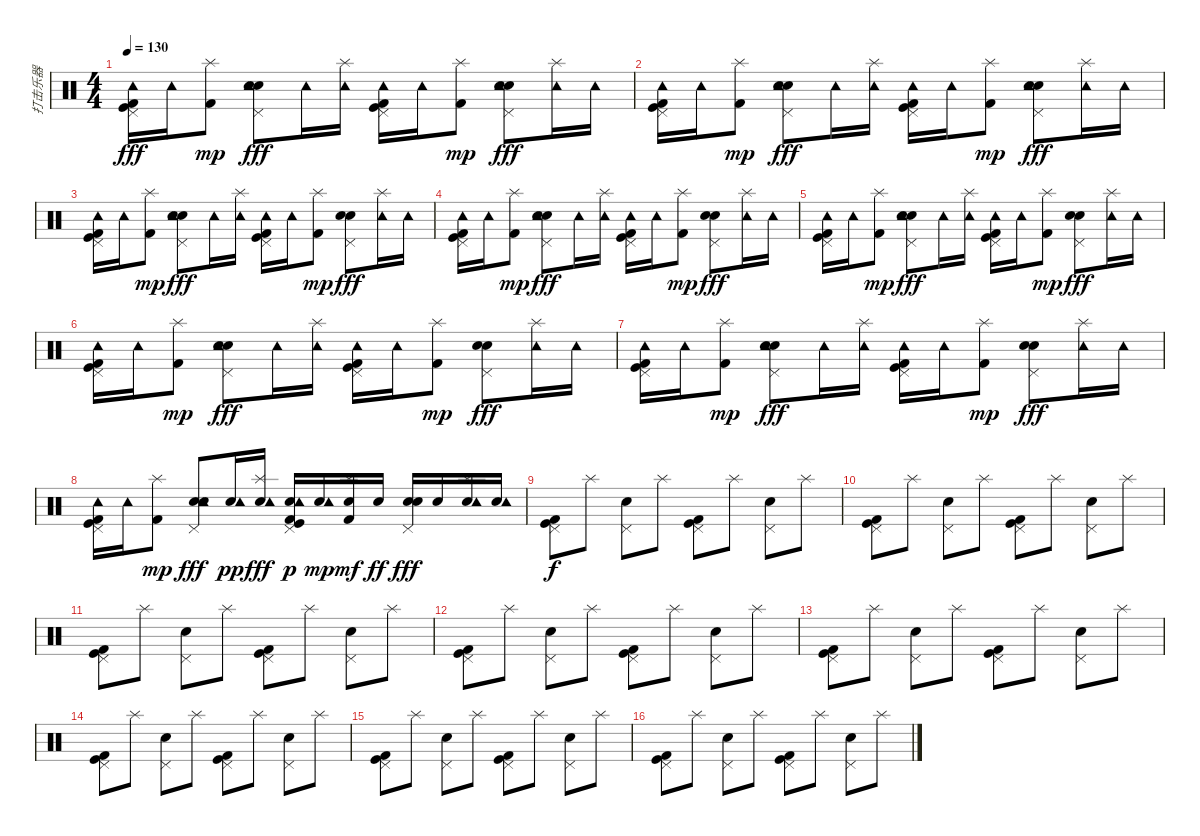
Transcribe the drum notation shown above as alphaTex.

\track ("打击乐器" "打击乐器") {instrument percussion}
\staff {score}
\articulation defaults
\ts (4 4)
\tempo 130
\clef neutral
\ks c
("Pedal Hi-Hat (hit)" "Kick (hit)" "Kick (hit) 2" "Tambourine (hit)").16{dy fff} "Tambourine (hit)".16 ("Splash (hit)" "Kick (hit) 2").8{dy mp} ("Pedal Hi-Hat (hit)" "Electric Snare (hit)" "Snare (hit) 2" "Tambourine (hit)").8{dy fff} "Tambourine (hit)".16 ("Splash (hit)" "Tambourine (hit)").16 ("Pedal Hi-Hat (hit)" "Kick (hit)" "Kick (hit) 2" "Tambourine (hit)").16 "Tambourine (hit)".16 ("Splash (hit)" "Kick (hit) 2").8{dy mp} ("Pedal Hi-Hat (hit)" "Electric Snare (hit)" "Snare (hit) 2" "Tambourine (hit)").8{dy fff} ("Splash (hit)" "Tambourine (hit)").16 "Tambourine (hit)".16 |
("Pedal Hi-Hat (hit)" "Kick (hit)" "Kick (hit) 2" "Tambourine (hit)").16 "Tambourine (hit)".16 ("Splash (hit)" "Kick (hit) 2").8{dy mp} ("Pedal Hi-Hat (hit)" "Electric Snare (hit)" "Snare (hit) 2" "Tambourine (hit)").8{dy fff} "Tambourine (hit)".16 ("Splash (hit)" "Tambourine (hit)").16 ("Pedal Hi-Hat (hit)" "Kick (hit)" "Kick (hit) 2" "Tambourine (hit)").16 "Tambourine (hit)".16 ("Splash (hit)" "Kick (hit) 2").8{dy mp} ("Pedal Hi-Hat (hit)" "Electric Snare (hit)" "Snare (hit) 2" "Tambourine (hit)").8{dy fff} ("Splash (hit)" "Tambourine (hit)").16 "Tambourine (hit)".16 |
("Pedal Hi-Hat (hit)" "Kick (hit)" "Kick (hit) 2" "Tambourine (hit)").16 "Tambourine (hit)".16 ("Splash (hit)" "Kick (hit) 2").8{dy mp} ("Pedal Hi-Hat (hit)" "Electric Snare (hit)" "Snare (hit) 2" "Tambourine (hit)").8{dy fff} "Tambourine (hit)".16 ("Splash (hit)" "Tambourine (hit)").16 ("Pedal Hi-Hat (hit)" "Kick (hit)" "Kick (hit) 2" "Tambourine (hit)").16 "Tambourine (hit)".16 ("Splash (hit)" "Kick (hit) 2").8{dy mp} ("Pedal Hi-Hat (hit)" "Electric Snare (hit)" "Snare (hit) 2").8{dy fff} ("Splash (hit)" "Tambourine (hit)").16 "Tambourine (hit)".16 |
("Pedal Hi-Hat (hit)" "Kick (hit)" "Kick (hit) 2" "Tambourine (hit)").16 "Tambourine (hit)".16 ("Splash (hit)" "Kick (hit) 2").8{dy mp} ("Pedal Hi-Hat (hit)" "Electric Snare (hit)" "Snare (hit) 2" "Tambourine (hit)").8{dy fff} "Tambourine (hit)".16 ("Splash (hit)" "Tambourine (hit)").16 ("Pedal Hi-Hat (hit)" "Kick (hit)" "Kick (hit) 2" "Tambourine (hit)").16 "Tambourine (hit)".16 ("Splash (hit)" "Kick (hit) 2").8{dy mp} ("Pedal Hi-Hat (hit)" "Electric Snare (hit)" "Snare (hit) 2").8{dy fff} ("Splash (hit)" "Tambourine (hit)").16 "Tambourine (hit)".16 |
("Pedal Hi-Hat (hit)" "Kick (hit)" "Kick (hit) 2" "Tambourine (hit)").16 "Tambourine (hit)".16 ("Splash (hit)" "Kick (hit) 2").8{dy mp} ("Pedal Hi-Hat (hit)" "Electric Snare (hit)" "Snare (hit) 2" "Tambourine (hit)").8{dy fff} "Tambourine (hit)".16 ("Splash (hit)" "Tambourine (hit)").16 ("Pedal Hi-Hat (hit)" "Kick (hit)" "Kick (hit) 2" "Tambourine (hit)").16 "Tambourine (hit)".16 ("Splash (hit)" "Kick (hit) 2").8{dy mp} ("Pedal Hi-Hat (hit)" "Electric Snare (hit)" "Snare (hit) 2").8{dy fff} ("Splash (hit)" "Tambourine (hit)").16 "Tambourine (hit)".16 |
("Pedal Hi-Hat (hit)" "Kick (hit)" "Kick (hit) 2" "Tambourine (hit)").16 "Tambourine (hit)".16 ("Splash (hit)" "Kick (hit) 2").8{dy mp} ("Pedal Hi-Hat (hit)" "Electric Snare (hit)" "Snare (hit) 2" "Tambourine (hit)").8{dy fff} "Tambourine (hit)".16 ("Splash (hit)" "Tambourine (hit)").16 ("Pedal Hi-Hat (hit)" "Kick (hit)" "Kick (hit) 2" "Tambourine (hit)").16 "Tambourine (hit)".16 ("Splash (hit)" "Kick (hit) 2").8{dy mp} ("Pedal Hi-Hat (hit)" "Electric Snare (hit)" "Snare (hit) 2").8{dy fff} ("Splash (hit)" "Tambourine (hit)").16 "Tambourine (hit)".16 |
("Pedal Hi-Hat (hit)" "Kick (hit)" "Kick (hit) 2" "Tambourine (hit)").16 "Tambourine (hit)".16 ("Splash (hit)" "Kick (hit) 2").8{dy mp} ("Pedal Hi-Hat (hit)" "Electric Snare (hit)" "Snare (hit) 2" "Tambourine (hit)").8{dy fff} "Tambourine (hit)".16 ("Splash (hit)" "Tambourine (hit)").16 ("Pedal Hi-Hat (hit)" "Kick (hit)" "Kick (hit) 2" "Tambourine (hit)").16 "Tambourine (hit)".16 ("Splash (hit)" "Kick (hit) 2").8{dy mp} ("Pedal Hi-Hat (hit)" "Electric Snare (hit)" "Snare (hit) 2").8{dy fff} ("Splash (hit)" "Tambourine (hit)").16 "Tambourine (hit)".16 |
("Pedal Hi-Hat (hit)" "Kick (hit)" "Kick (hit) 2" "Tambourine (hit)").16 "Tambourine (hit)".16 ("Splash (hit)" "Kick (hit) 2").8{dy mp} ("Pedal Hi-Hat (hit)" "Electric Snare (hit)" "Snare (hit) 2" "Tambourine (hit)").8{dy fff} ("Electric Snare (hit)" "Tambourine (hit)").16{dy pp} ("Splash (hit)" "Electric Snare (hit)" "Tambourine (hit)").16{dy fff} ("Pedal Hi-Hat (hit)" "Electric Snare (hit)" "Kick (hit)" "Kick (hit) 2" "Tambourine (hit)").16{dy p} ("Electric Snare (hit)" "Tambourine (hit)").16{dy mp} ("Splash (hit)" "Electric Snare (hit)" "Kick (hit) 2").16{dy mf} "Electric Snare (hit)".16{dy ff} ("Pedal Hi-Hat (hit)" "Electric Snare (hit)" "Snare (hit) 2").16{dy fff} "Electric Snare (hit)".16 ("Splash (hit)" "Electric Snare (hit)" "Tambourine (hit)").16 ("Electric Snare (hit)" "Tambourine (hit)").16 |
("Pedal Hi-Hat (hit)" "Kick (hit)" "Kick (hit) 2").8{dy f} "Splash (hit)".8 ("Pedal Hi-Hat (hit)" "Snare (hit) 2").8 "Splash (hit)".8 ("Pedal Hi-Hat (hit)" "Kick (hit)" "Kick (hit) 2").8 "Splash (hit)".8 ("Pedal Hi-Hat (hit)" "Snare (hit) 2").8 "Splash (hit)".8 |
("Pedal Hi-Hat (hit)" "Kick (hit)" "Kick (hit) 2").8 "Splash (hit)".8 ("Pedal Hi-Hat (hit)" "Snare (hit) 2").8 "Splash (hit)".8 ("Pedal Hi-Hat (hit)" "Kick (hit)" "Kick (hit) 2").8 "Splash (hit)".8 ("Pedal Hi-Hat (hit)" "Snare (hit) 2").8 "Splash (hit)".8 |
("Pedal Hi-Hat (hit)" "Kick (hit)" "Kick (hit) 2").8 "Splash (hit)".8 ("Pedal Hi-Hat (hit)" "Snare (hit) 2").8 "Splash (hit)".8 ("Pedal Hi-Hat (hit)" "Kick (hit)" "Kick (hit) 2").8 "Splash (hit)".8 ("Pedal Hi-Hat (hit)" "Snare (hit) 2").8 "Splash (hit)".8 |
("Pedal Hi-Hat (hit)" "Kick (hit)" "Kick (hit) 2").8 "Splash (hit)".8 ("Pedal Hi-Hat (hit)" "Snare (hit) 2").8 "Splash (hit)".8 ("Pedal Hi-Hat (hit)" "Kick (hit)" "Kick (hit) 2").8 "Splash (hit)".8 ("Pedal Hi-Hat (hit)" "Snare (hit) 2").8 "Splash (hit)".8 |
("Pedal Hi-Hat (hit)" "Kick (hit)" "Kick (hit) 2").8 "Splash (hit)".8 ("Pedal Hi-Hat (hit)" "Snare (hit) 2").8 "Splash (hit)".8 ("Pedal Hi-Hat (hit)" "Kick (hit)" "Kick (hit) 2").8 "Splash (hit)".8 ("Pedal Hi-Hat (hit)" "Snare (hit) 2").8 "Splash (hit)".8 |
("Pedal Hi-Hat (hit)" "Kick (hit)" "Kick (hit) 2").8 "Splash (hit)".8 ("Pedal Hi-Hat (hit)" "Snare (hit) 2").8 "Splash (hit)".8 ("Pedal Hi-Hat (hit)" "Kick (hit)" "Kick (hit) 2").8 "Splash (hit)".8 ("Pedal Hi-Hat (hit)" "Snare (hit) 2").8 "Splash (hit)".8 |
("Pedal Hi-Hat (hit)" "Kick (hit)" "Kick (hit) 2").8 "Splash (hit)".8 ("Pedal Hi-Hat (hit)" "Snare (hit) 2").8 "Splash (hit)".8 ("Pedal Hi-Hat (hit)" "Kick (hit)" "Kick (hit) 2").8 "Splash (hit)".8 ("Pedal Hi-Hat (hit)" "Snare (hit) 2").8 "Splash (hit)".8 |
("Pedal Hi-Hat (hit)" "Kick (hit)" "Kick (hit) 2").8 "Splash (hit)".8 ("Pedal Hi-Hat (hit)" "Snare (hit) 2").8 "Splash (hit)".8 ("Pedal Hi-Hat (hit)" "Kick (hit)" "Kick (hit) 2").8 "Splash (hit)".8 ("Pedal Hi-Hat (hit)" "Snare (hit) 2").8 "Splash (hit)".8
